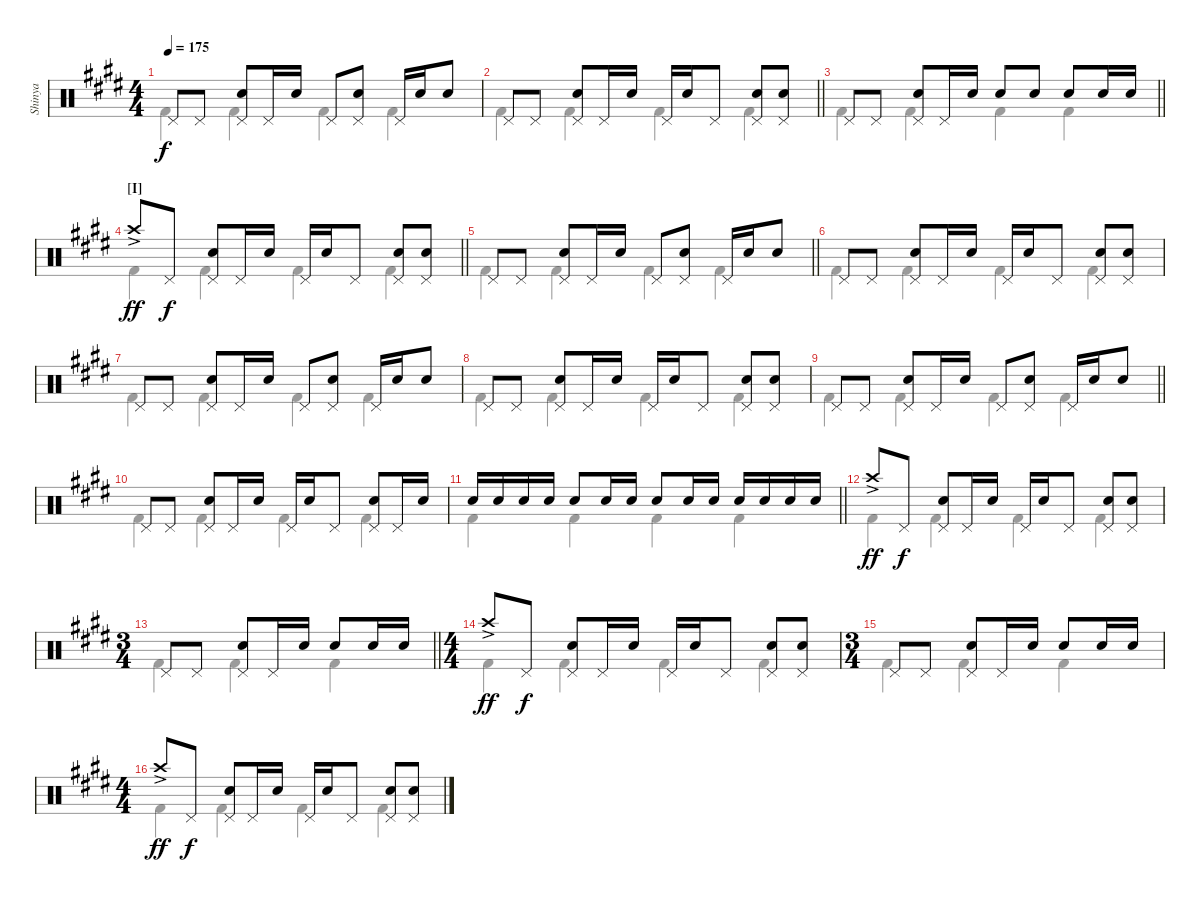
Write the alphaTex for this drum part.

\track ("Shinya" "Shinya") {instrument percussion}
\staff {score}
\articulation defaults
\voice
\ts (4 4)
\tempo 175
\clef neutral
\ks c#minor "Pedal Hi-Hat (hit)".8{dy f} "Pedal Hi-Hat (hit)".8
("Pedal Hi-Hat (hit)" "Snare (hit) 2").8 "Pedal Hi-Hat (hit)".16 "Snare (hit) 2".16 "Pedal Hi-Hat (hit)".8 ("Pedal Hi-Hat (hit)" "Snare (hit) 2").8 "Pedal Hi-Hat (hit)".16 "Snare (hit) 2".16 "Snare (hit) 2".8 |
\barLineRight lightlight "Pedal Hi-Hat (hit)".8 "Pedal Hi-Hat (hit)".8
("Pedal Hi-Hat (hit)" "Snare (hit) 2").8 "Pedal Hi-Hat (hit)".16 "Snare (hit) 2".16 "Pedal Hi-Hat (hit)".16 "Snare (hit) 2".16 "Pedal Hi-Hat (hit)".8 ("Pedal Hi-Hat (hit)" "Snare (hit) 2").8 ("Pedal Hi-Hat (hit)" "Snare (hit) 2").8 |
\barLineRight lightlight "Pedal Hi-Hat (hit)".8 "Pedal Hi-Hat (hit)".8
("Pedal Hi-Hat (hit)" "Snare (hit) 2").8 "Pedal Hi-Hat (hit)".16 "Snare (hit) 2".16 "Snare (hit) 2".8 "Snare (hit) 2".8 "Snare (hit) 2".8 "Snare (hit) 2".16 "Snare (hit) 2".16 |
\section ("" "[I]")
\barLineRight lightlight "Crash high (hit)"{ac}.8{dy ff} "Pedal Hi-Hat (hit)".8{dy f}
("Pedal Hi-Hat (hit)" "Snare (hit) 2").8 "Pedal Hi-Hat (hit)".16 "Snare (hit) 2".16 "Pedal Hi-Hat (hit)".16 "Snare (hit) 2".16 "Pedal Hi-Hat (hit)".8 ("Pedal Hi-Hat (hit)" "Snare (hit) 2").8 ("Pedal Hi-Hat (hit)" "Snare (hit) 2").8 |
\barLineRight lightlight "Pedal Hi-Hat (hit)".8 "Pedal Hi-Hat (hit)".8
("Pedal Hi-Hat (hit)" "Snare (hit) 2").8 "Pedal Hi-Hat (hit)".16 "Snare (hit) 2".16 "Pedal Hi-Hat (hit)".8 ("Pedal Hi-Hat (hit)" "Snare (hit) 2").8 "Pedal Hi-Hat (hit)".16 "Snare (hit) 2".16 "Snare (hit) 2".8 |
"Pedal Hi-Hat (hit)".8 "Pedal Hi-Hat (hit)".8 ("Pedal Hi-Hat (hit)" "Snare (hit) 2").8 "Pedal Hi-Hat (hit)".16 "Snare (hit) 2".16 "Pedal Hi-Hat (hit)".16 "Snare (hit) 2".16 "Pedal Hi-Hat (hit)".8 ("Pedal Hi-Hat (hit)" "Snare (hit) 2").8 ("Pedal Hi-Hat (hit)" "Snare (hit) 2").8 |
"Pedal Hi-Hat (hit)".8 "Pedal Hi-Hat (hit)".8 ("Pedal Hi-Hat (hit)" "Snare (hit) 2").8 "Pedal Hi-Hat (hit)".16 "Snare (hit) 2".16 "Pedal Hi-Hat (hit)".8 ("Pedal Hi-Hat (hit)" "Snare (hit) 2").8 "Pedal Hi-Hat (hit)".16 "Snare (hit) 2".16 "Snare (hit) 2".8 |
"Pedal Hi-Hat (hit)".8 "Pedal Hi-Hat (hit)".8 ("Pedal Hi-Hat (hit)" "Snare (hit) 2").8 "Pedal Hi-Hat (hit)".16 "Snare (hit) 2".16 "Pedal Hi-Hat (hit)".16 "Snare (hit) 2".16 "Pedal Hi-Hat (hit)".8 ("Pedal Hi-Hat (hit)" "Snare (hit) 2").8 ("Pedal Hi-Hat (hit)" "Snare (hit) 2").8 |
\barLineRight lightlight "Pedal Hi-Hat (hit)".8 "Pedal Hi-Hat (hit)".8
("Pedal Hi-Hat (hit)" "Snare (hit) 2").8 "Pedal Hi-Hat (hit)".16 "Snare (hit) 2".16 "Pedal Hi-Hat (hit)".8 ("Pedal Hi-Hat (hit)" "Snare (hit) 2").8 "Pedal Hi-Hat (hit)".16 "Snare (hit) 2".16 "Snare (hit) 2".8 |
"Pedal Hi-Hat (hit)".8 "Pedal Hi-Hat (hit)".8 ("Pedal Hi-Hat (hit)" "Snare (hit) 2").8 "Pedal Hi-Hat (hit)".16 "Snare (hit) 2".16 "Pedal Hi-Hat (hit)".16 "Snare (hit) 2".16 "Pedal Hi-Hat (hit)".8 ("Pedal Hi-Hat (hit)" "Snare (hit) 2").8 "Pedal Hi-Hat (hit)".16 "Snare (hit) 2".16 |
\barLineRight lightlight "Snare (hit) 2".16 "Snare (hit) 2".16 "Snare (hit) 2".16 "Snare (hit) 2".16 "Snare (hit) 2".8 "Snare (hit) 2".16 "Snare (hit) 2".16 "Snare (hit) 2".8 "Snare (hit) 2".16 "Snare (hit) 2".16 "Snare (hit) 2".16 "Snare (hit) 2".16 "Snare (hit) 2".16 "Snare (hit) 2".16
|
"Crash high (hit)"{ac}.8{dy ff} "Pedal Hi-Hat (hit)".8{dy f} ("Pedal Hi-Hat (hit)" "Snare (hit) 2").8 "Pedal Hi-Hat (hit)".16 "Snare (hit) 2".16 "Pedal Hi-Hat (hit)".16 "Snare (hit) 2".16 "Pedal Hi-Hat (hit)".8 ("Pedal Hi-Hat (hit)" "Snare (hit) 2").8 ("Pedal Hi-Hat (hit)" "Snare (hit) 2").8 |
\ts (3 4)
\barLineRight lightlight "Pedal Hi-Hat (hit)".8 "Pedal Hi-Hat (hit)".8
("Pedal Hi-Hat (hit)" "Snare (hit) 2").8 "Pedal Hi-Hat (hit)".16 "Snare (hit) 2".16 "Snare (hit) 2".8 "Snare (hit) 2".16 "Snare (hit) 2".16 |
\ts (4 4)
"Crash high (hit)"{ac}.8{dy ff} "Pedal Hi-Hat (hit)".8{dy f} ("Pedal Hi-Hat (hit)" "Snare (hit) 2").8 "Pedal Hi-Hat (hit)".16 "Snare (hit) 2".16 "Pedal Hi-Hat (hit)".16 "Snare (hit) 2".16 "Pedal Hi-Hat (hit)".8 ("Pedal Hi-Hat (hit)" "Snare (hit) 2").8 ("Pedal Hi-Hat (hit)" "Snare (hit) 2").8 |
\ts (3 4)
"Pedal Hi-Hat (hit)".8 "Pedal Hi-Hat (hit)".8 ("Pedal Hi-Hat (hit)" "Snare (hit) 2").8 "Pedal Hi-Hat (hit)".16 "Snare (hit) 2".16 "Snare (hit) 2".8 "Snare (hit) 2".16 "Snare (hit) 2".16 |
\ts (4 4)
"Crash high (hit)"{ac}.8{dy ff} "Pedal Hi-Hat (hit)".8{dy f} ("Pedal Hi-Hat (hit)" "Snare (hit) 2").8 "Pedal Hi-Hat (hit)".16 "Snare (hit) 2".16 "Pedal Hi-Hat (hit)".16 "Snare (hit) 2".16 "Pedal Hi-Hat (hit)".8 ("Pedal Hi-Hat (hit)" "Snare (hit) 2").8 ("Pedal Hi-Hat (hit)" "Snare (hit) 2").8
\voice
\clef neutral
\ottava regular
\simile none
\ks c#minor "Kick (hit) 2".4{dy f} "Kick (hit) 2".4 "Kick (hit) 2".4 "Kick (hit) 2".4
|
\barLineRight lightlight "Kick (hit) 2".4 "Kick (hit) 2".4 "Kick (hit) 2".4 "Kick (hit) 2".4
|
\barLineRight lightlight "Kick (hit) 2".4 "Kick (hit) 2".4 "Kick (hit) 2".4 "Kick (hit) 2".4
|
\barLineRight lightlight "Kick (hit) 2".4 "Kick (hit) 2".4 "Kick (hit) 2".4 "Kick (hit) 2".4
|
\barLineRight lightlight "Kick (hit) 2".4 "Kick (hit) 2".4 "Kick (hit) 2".4 "Kick (hit) 2".4
|
"Kick (hit) 2".4 "Kick (hit) 2".4 "Kick (hit) 2".4 "Kick (hit) 2".4 |
"Kick (hit) 2".4 "Kick (hit) 2".4 "Kick (hit) 2".4 "Kick (hit) 2".4 |
"Kick (hit) 2".4 "Kick (hit) 2".4 "Kick (hit) 2".4 "Kick (hit) 2".4 |
\barLineRight lightlight "Kick (hit) 2".4 "Kick (hit) 2".4 "Kick (hit) 2".4 "Kick (hit) 2".4
|
"Kick (hit) 2".4 "Kick (hit) 2".4 "Kick (hit) 2".4 "Kick (hit) 2".4 |
\barLineRight lightlight "Kick (hit) 2".4 "Kick (hit) 2".4 "Kick (hit) 2".4 "Kick (hit) 2".4
|
"Kick (hit) 2".4 "Kick (hit) 2".4 "Kick (hit) 2".4 "Kick (hit) 2".4 |
\barLineRight lightlight "Kick (hit) 2".4 "Kick (hit) 2".4 "Kick (hit) 2".4
|
"Kick (hit) 2".4 "Kick (hit) 2".4 "Kick (hit) 2".4 "Kick (hit) 2".4 |
"Kick (hit) 2".4 "Kick (hit) 2".4 "Kick (hit) 2".4 |
"Kick (hit) 2".4 "Kick (hit) 2".4 "Kick (hit) 2".4 "Kick (hit) 2".4
